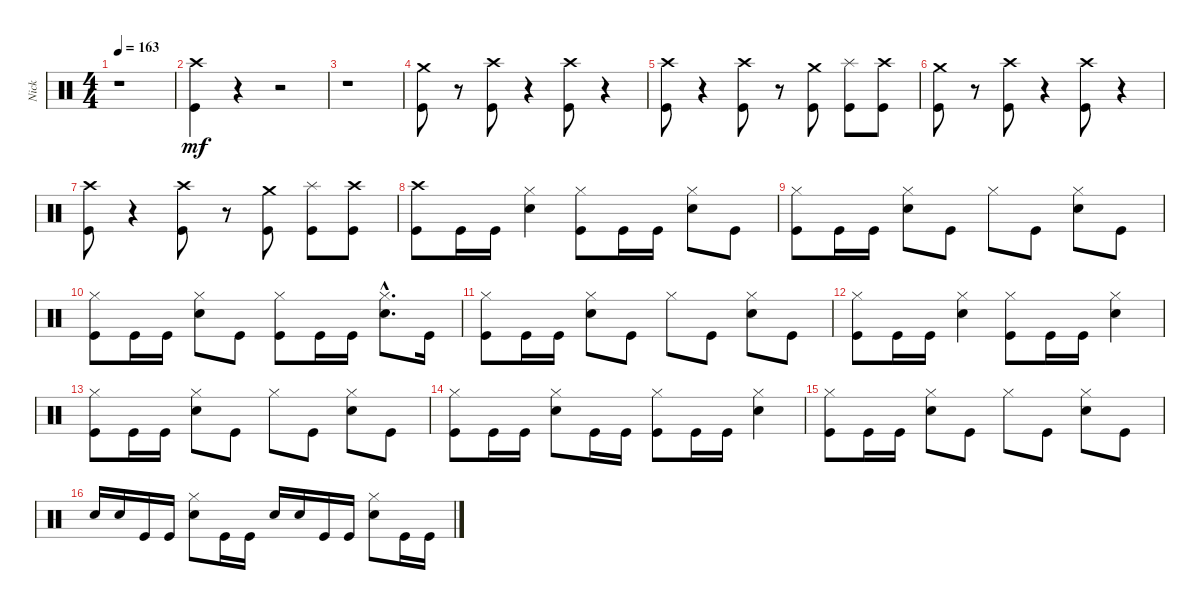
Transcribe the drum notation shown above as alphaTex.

\track ("Nick" "Nick") {instrument percussion}
\staff {score}
\articulation defaults
\ts (4 4)
\tempo 163
\clef neutral
\ks c
r.1{dy mf} |
("Kick (hit)" "Crash high (hit)").4 r.4 r.2 |
r.1 |
("Kick (hit)" "Crash medium (hit)").8 r.8 ("Kick (hit)" "Crash high (hit)").8 r.4 ("Kick (hit)" "Crash high (hit)").8 r.4 |
("Kick (hit)" "Crash high (hit)").8 r.4 ("Kick (hit)" "Crash high (hit)").8 r.8 ("Kick (hit)" "Crash medium (hit)").8 ("Kick (hit)" "Splash (hit)").8 ("Kick (hit)" "Crash high (hit)").8 |
("Kick (hit)" "Crash medium (hit)").8 r.8 ("Kick (hit)" "Crash high (hit)").8 r.4 ("Kick (hit)" "Crash high (hit)").8 r.4 |
("Kick (hit)" "Crash high (hit)").8 r.4 ("Kick (hit)" "Crash high (hit)").8 r.8 ("Kick (hit)" "Crash medium (hit)").8 ("Kick (hit)" "Splash (hit)").8 ("Kick (hit)" "Crash high (hit)").8 |
("Kick (hit)" "Crash high (hit)").8 "Kick (hit)".16 "Kick (hit)".16 ("Hi-Hat (closed)" "Snare (hit) 2").4 ("Kick (hit)" "Hi-Hat (closed)").8 "Kick (hit)".16 "Kick (hit)".16 ("Hi-Hat (closed)" "Snare (hit) 2").8 "Kick (hit)".8 |
("Kick (hit)" "Hi-Hat (closed)").8 "Kick (hit)".16 "Kick (hit)".16 ("Hi-Hat (closed)" "Snare (hit) 2").8 "Kick (hit)".8 "Hi-Hat (closed)".8 "Kick (hit)".8 ("Hi-Hat (closed)" "Snare (hit) 2").8 "Kick (hit)".8 |
("Kick (hit)" "Hi-Hat (closed)").8 "Kick (hit)".16 "Kick (hit)".16 ("Hi-Hat (closed)" "Snare (hit) 2").8 "Kick (hit)".8 ("Kick (hit)" "Hi-Hat (closed)").8 "Kick (hit)".16 "Kick (hit)".16 ("Hi-Hat (closed)"{hac} "Snare (hit) 2"{hac}).8{d} "Kick (hit)".16 |
("Kick (hit)" "Hi-Hat (closed)").8 "Kick (hit)".16 "Kick (hit)".16 ("Hi-Hat (closed)" "Snare (hit) 2").8 "Kick (hit)".8 "Hi-Hat (closed)".8 "Kick (hit)".8 ("Hi-Hat (closed)" "Snare (hit) 2").8 "Kick (hit)".8 |
("Kick (hit)" "Hi-Hat (closed)").8 "Kick (hit)".16 "Kick (hit)".16 ("Hi-Hat (closed)" "Snare (hit) 2").4 ("Kick (hit)" "Hi-Hat (closed)").8 "Kick (hit)".16 "Kick (hit)".16 ("Hi-Hat (closed)" "Snare (hit) 2").4 |
("Kick (hit)" "Hi-Hat (closed)").8 "Kick (hit)".16 "Kick (hit)".16 ("Hi-Hat (closed)" "Snare (hit) 2").8 "Kick (hit)".8 "Hi-Hat (closed)".8 "Kick (hit)".8 ("Hi-Hat (closed)" "Snare (hit) 2").8 "Kick (hit)".8 |
("Kick (hit)" "Hi-Hat (closed)").8 "Kick (hit)".16 "Kick (hit)".16 ("Hi-Hat (closed)" "Snare (hit) 2").8 "Kick (hit)".16 "Kick (hit)".16 ("Kick (hit)" "Hi-Hat (closed)").8 "Kick (hit)".16 "Kick (hit)".16 ("Hi-Hat (closed)" "Snare (hit) 2").4 |
("Kick (hit)" "Hi-Hat (closed)").8 "Kick (hit)".16 "Kick (hit)".16 ("Hi-Hat (closed)" "Snare (hit) 2").8 "Kick (hit)".8 "Hi-Hat (closed)".8 "Kick (hit)".8 ("Hi-Hat (closed)" "Snare (hit) 2").8 "Kick (hit)".8 |
"Snare (hit) 2".16 "Snare (hit) 2".16 "Kick (hit)".16 "Kick (hit)".16 ("Hi-Hat (closed)" "Snare (hit) 2").8 "Kick (hit)".16 "Kick (hit)".16 "Snare (hit) 2".16 "Snare (hit) 2".16 "Kick (hit)".16 "Kick (hit)".16 ("Hi-Hat (closed)" "Snare (hit) 2").8 "Kick (hit)".16 "Kick (hit)".16
